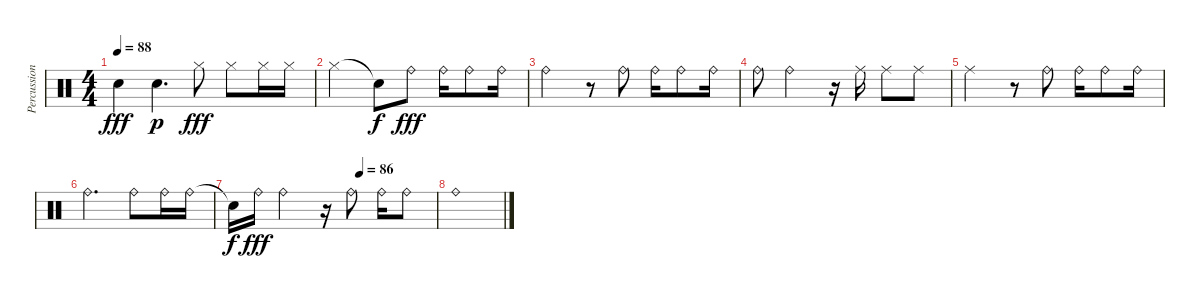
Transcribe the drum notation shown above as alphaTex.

\track ("Percussions" "Percussion") {instrument percussion}
\staff {score}
\articulation defaults
\ts (4 4)
\tempo 88
\clef neutral
\ks c "Electric Snare (hit)".4{dy fff} "Electric Snare (hit)".4{d dy p} "Hi-Hat (closed)".8{dy fff} "Hi-Hat (closed)".8 "Hi-Hat (closed)".16 "Hi-Hat (closed)".16
|
"Hi-Hat (closed)".2 "Snare (hit)"{t}.8{dy f} "Ride (bell)".8{dy fff} "Ride (bell)".16 "Ride (bell)".8 "Ride (bell)".16 |
"Ride (bell)".2 r.8 "Ride (bell)".8 "Ride (bell)".16 "Ride (bell)".8 "Ride (bell)".16 |
"Ride (bell)".8 "Ride (bell)".2 r.16 "Ride (middle)".16 "Ride (middle)".8 "Ride (middle)".8 |
"Ride (middle)".2 r.8 "Ride (bell)".8 "Ride (bell)".16 "Ride (bell)".8 "Ride (bell)".16 |
"Ride (bell)".2{d} "Ride (bell)".8 "Ride (bell)".16 "Ride (bell)".16 |
\tempo (86 0.625)
"Snare (hit)"{t}.16{dy f} "Ride (bell)".16{dy fff} "Ride (bell)".2 r.16 "Ride (bell)".8 "Ride (bell)".16 "Ride (bell)".8 |
"Ride (bell)".1
